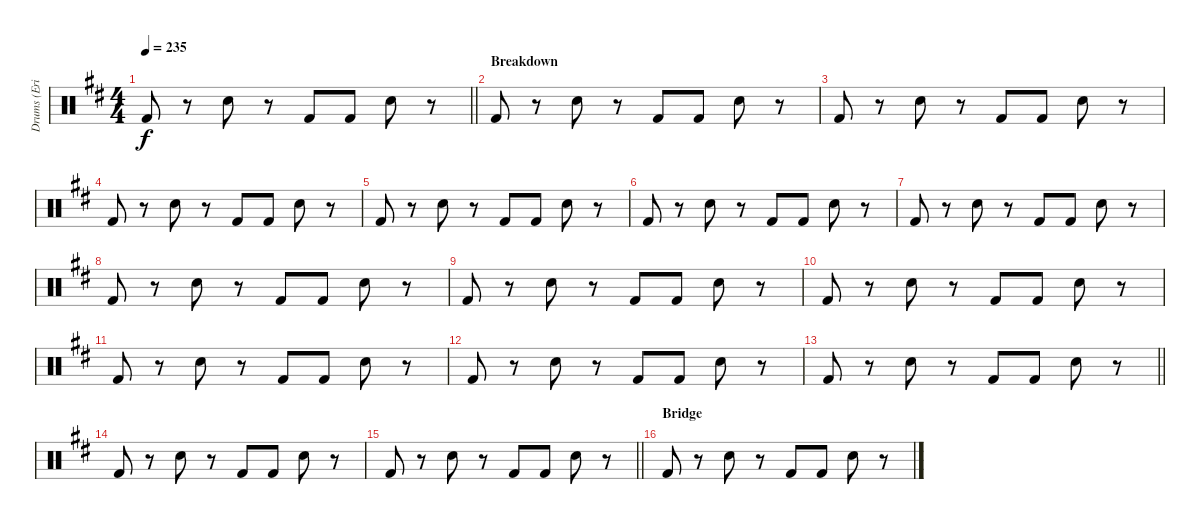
\track ("Drums (Eric Carr)" "Drums (Eri") {instrument percussion}
\staff {score}
\articulation defaults
\ts (4 4)
\tempo 235
\clef neutral
\barLineRight lightlight
\ks d "Kick (hit) 2".8{dy f}
r.8 "Snare (hit) 2".8 r.8 "Kick (hit) 2".8 "Kick (hit) 2".8 "Snare (hit) 2".8 r.8 |
\section ("" "Breakdown")
"Kick (hit) 2".8 r.8 "Snare (hit) 2".8 r.8 "Kick (hit) 2".8 "Kick (hit) 2".8 "Snare (hit) 2".8 r.8 |
"Kick (hit) 2".8 r.8 "Snare (hit) 2".8 r.8 "Kick (hit) 2".8 "Kick (hit) 2".8 "Snare (hit) 2".8 r.8 |
"Kick (hit) 2".8 r.8 "Snare (hit) 2".8 r.8 "Kick (hit) 2".8 "Kick (hit) 2".8 "Snare (hit) 2".8 r.8 |
"Kick (hit) 2".8 r.8 "Snare (hit) 2".8 r.8 "Kick (hit) 2".8 "Kick (hit) 2".8 "Snare (hit) 2".8 r.8 |
"Kick (hit) 2".8 r.8 "Snare (hit) 2".8 r.8 "Kick (hit) 2".8 "Kick (hit) 2".8 "Snare (hit) 2".8 r.8 |
"Kick (hit) 2".8 r.8 "Snare (hit) 2".8 r.8 "Kick (hit) 2".8 "Kick (hit) 2".8 "Snare (hit) 2".8 r.8 |
"Kick (hit) 2".8 r.8 "Snare (hit) 2".8 r.8 "Kick (hit) 2".8 "Kick (hit) 2".8 "Snare (hit) 2".8 r.8 |
"Kick (hit) 2".8 r.8 "Snare (hit) 2".8 r.8 "Kick (hit) 2".8 "Kick (hit) 2".8 "Snare (hit) 2".8 r.8 |
"Kick (hit) 2".8 r.8 "Snare (hit) 2".8 r.8 "Kick (hit) 2".8 "Kick (hit) 2".8 "Snare (hit) 2".8 r.8 |
"Kick (hit) 2".8 r.8 "Snare (hit) 2".8 r.8 "Kick (hit) 2".8 "Kick (hit) 2".8 "Snare (hit) 2".8 r.8 |
"Kick (hit) 2".8 r.8 "Snare (hit) 2".8 r.8 "Kick (hit) 2".8 "Kick (hit) 2".8 "Snare (hit) 2".8 r.8 |
\barLineRight lightlight "Kick (hit) 2".8
r.8 "Snare (hit) 2".8 r.8 "Kick (hit) 2".8 "Kick (hit) 2".8 "Snare (hit) 2".8 r.8 |
"Kick (hit) 2".8 r.8 "Snare (hit) 2".8 r.8 "Kick (hit) 2".8 "Kick (hit) 2".8 "Snare (hit) 2".8 r.8 |
\barLineRight lightlight "Kick (hit) 2".8
r.8 "Snare (hit) 2".8 r.8 "Kick (hit) 2".8 "Kick (hit) 2".8 "Snare (hit) 2".8 r.8 |
\section ("" "Bridge")
"Kick (hit) 2".8 r.8 "Snare (hit) 2".8 r.8 "Kick (hit) 2".8 "Kick (hit) 2".8 "Snare (hit) 2".8 r.8
